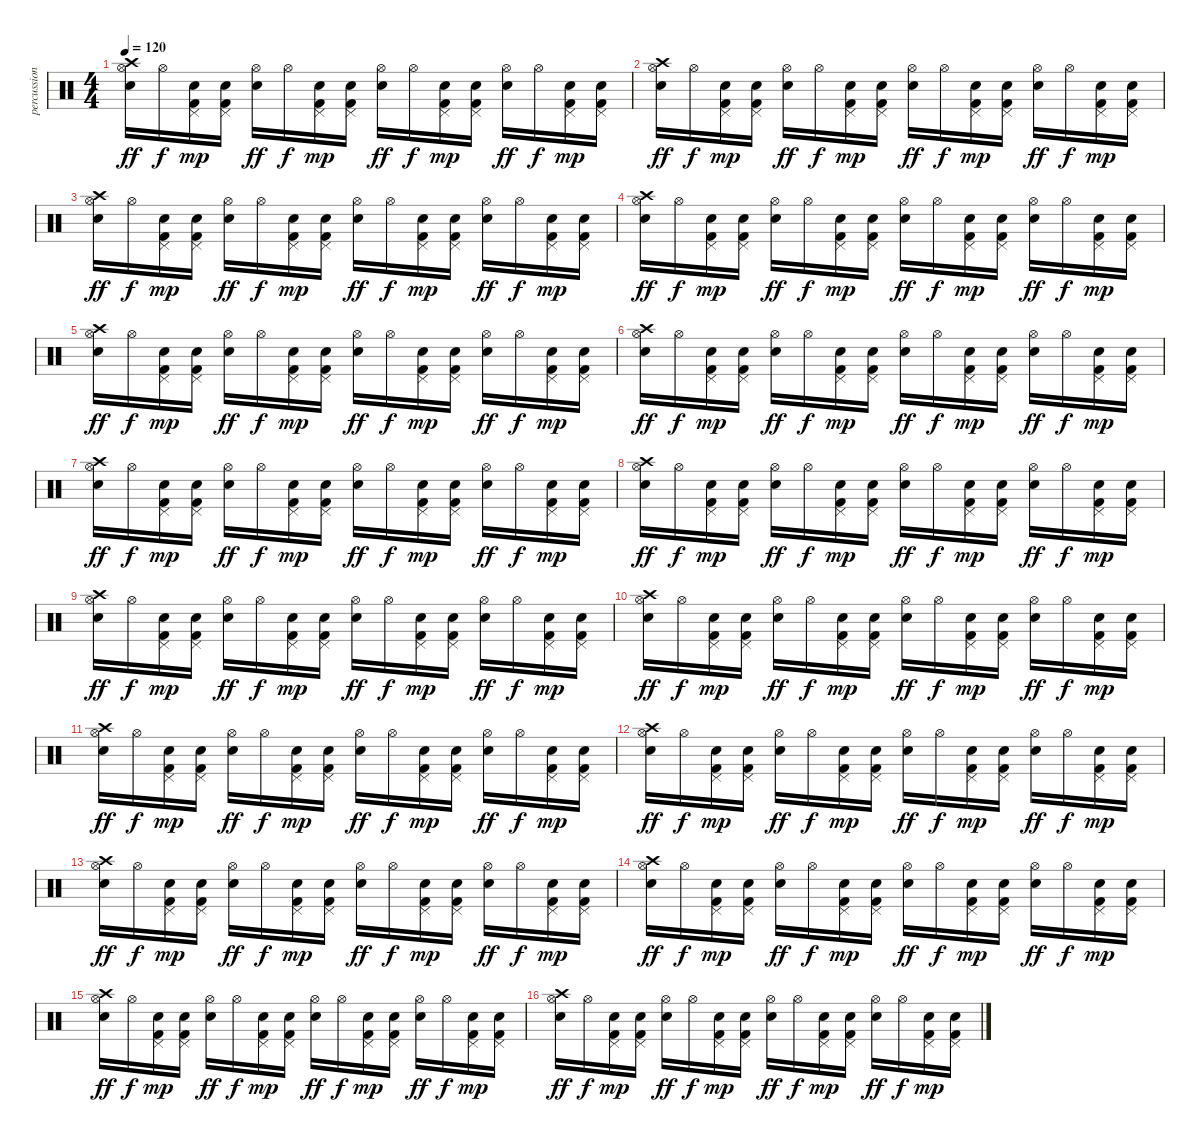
\track ("percussion" "percussion") {instrument percussion}
\staff {score}
\articulation defaults
\ts (4 4)
\tempo 120
\clef neutral
\ks c
("Hi-Hat (open)" "Electric Snare (hit)" "Crash high (hit)").16{dy ff} "Hi-Hat (open)".16{dy f} ("Electric Snare (hit)" "Kick (hit) 2" "Pedal Hi-Hat (hit)").16{dy mp} ("Electric Snare (hit)" "Kick (hit) 2" "Pedal Hi-Hat (hit)").16 ("Hi-Hat (open)" "Electric Snare (hit)").16{dy ff} "Hi-Hat (open)".16{dy f} ("Electric Snare (hit)" "Kick (hit) 2" "Pedal Hi-Hat (hit)").16{dy mp} ("Electric Snare (hit)" "Kick (hit) 2" "Pedal Hi-Hat (hit)").16 ("Hi-Hat (open)" "Electric Snare (hit)").16{dy ff} "Hi-Hat (open)".16{dy f} ("Electric Snare (hit)" "Kick (hit) 2" "Pedal Hi-Hat (hit)").16{dy mp} ("Electric Snare (hit)" "Kick (hit) 2" "Pedal Hi-Hat (hit)").16 ("Hi-Hat (open)" "Electric Snare (hit)").16{dy ff} "Hi-Hat (open)".16{dy f} ("Electric Snare (hit)" "Kick (hit) 2" "Pedal Hi-Hat (hit)").16{dy mp} ("Electric Snare (hit)" "Kick (hit) 2" "Pedal Hi-Hat (hit)").16 |
("Hi-Hat (open)" "Electric Snare (hit)" "Crash high (hit)").16{dy ff} "Hi-Hat (open)".16{dy f} ("Electric Snare (hit)" "Kick (hit) 2" "Pedal Hi-Hat (hit)").16{dy mp} ("Electric Snare (hit)" "Kick (hit) 2" "Pedal Hi-Hat (hit)").16 ("Hi-Hat (open)" "Electric Snare (hit)").16{dy ff} "Hi-Hat (open)".16{dy f} ("Electric Snare (hit)" "Kick (hit) 2" "Pedal Hi-Hat (hit)").16{dy mp} ("Electric Snare (hit)" "Kick (hit) 2" "Pedal Hi-Hat (hit)").16 ("Hi-Hat (open)" "Electric Snare (hit)").16{dy ff} "Hi-Hat (open)".16{dy f} ("Electric Snare (hit)" "Kick (hit) 2" "Pedal Hi-Hat (hit)").16{dy mp} ("Electric Snare (hit)" "Kick (hit) 2" "Pedal Hi-Hat (hit)").16 ("Hi-Hat (open)" "Electric Snare (hit)").16{dy ff} "Hi-Hat (open)".16{dy f} ("Electric Snare (hit)" "Kick (hit) 2" "Pedal Hi-Hat (hit)").16{dy mp} ("Electric Snare (hit)" "Kick (hit) 2" "Pedal Hi-Hat (hit)").16 |
("Hi-Hat (open)" "Electric Snare (hit)" "Crash high (hit)").16{dy ff} "Hi-Hat (open)".16{dy f} ("Electric Snare (hit)" "Kick (hit) 2" "Pedal Hi-Hat (hit)").16{dy mp} ("Electric Snare (hit)" "Kick (hit) 2" "Pedal Hi-Hat (hit)").16 ("Hi-Hat (open)" "Electric Snare (hit)").16{dy ff} "Hi-Hat (open)".16{dy f} ("Electric Snare (hit)" "Kick (hit) 2" "Pedal Hi-Hat (hit)").16{dy mp} ("Electric Snare (hit)" "Kick (hit) 2" "Pedal Hi-Hat (hit)").16 ("Hi-Hat (open)" "Electric Snare (hit)").16{dy ff} "Hi-Hat (open)".16{dy f} ("Electric Snare (hit)" "Kick (hit) 2" "Pedal Hi-Hat (hit)").16{dy mp} ("Electric Snare (hit)" "Kick (hit) 2" "Pedal Hi-Hat (hit)").16 ("Hi-Hat (open)" "Electric Snare (hit)").16{dy ff} "Hi-Hat (open)".16{dy f} ("Electric Snare (hit)" "Kick (hit) 2" "Pedal Hi-Hat (hit)").16{dy mp} ("Electric Snare (hit)" "Kick (hit) 2" "Pedal Hi-Hat (hit)").16 |
("Hi-Hat (open)" "Electric Snare (hit)" "Crash high (hit)").16{dy ff} "Hi-Hat (open)".16{dy f} ("Electric Snare (hit)" "Kick (hit) 2" "Pedal Hi-Hat (hit)").16{dy mp} ("Electric Snare (hit)" "Kick (hit) 2" "Pedal Hi-Hat (hit)").16 ("Hi-Hat (open)" "Electric Snare (hit)").16{dy ff} "Hi-Hat (open)".16{dy f} ("Electric Snare (hit)" "Kick (hit) 2" "Pedal Hi-Hat (hit)").16{dy mp} ("Electric Snare (hit)" "Kick (hit) 2" "Pedal Hi-Hat (hit)").16 ("Hi-Hat (open)" "Electric Snare (hit)").16{dy ff} "Hi-Hat (open)".16{dy f} ("Electric Snare (hit)" "Kick (hit) 2" "Pedal Hi-Hat (hit)").16{dy mp} ("Electric Snare (hit)" "Kick (hit) 2" "Pedal Hi-Hat (hit)").16 ("Hi-Hat (open)" "Electric Snare (hit)").16{dy ff} "Hi-Hat (open)".16{dy f} ("Electric Snare (hit)" "Kick (hit) 2" "Pedal Hi-Hat (hit)").16{dy mp} ("Electric Snare (hit)" "Kick (hit) 2" "Pedal Hi-Hat (hit)").16 |
("Hi-Hat (open)" "Electric Snare (hit)" "Crash high (hit)").16{dy ff} "Hi-Hat (open)".16{dy f} ("Electric Snare (hit)" "Kick (hit) 2" "Pedal Hi-Hat (hit)").16{dy mp} ("Electric Snare (hit)" "Kick (hit) 2" "Pedal Hi-Hat (hit)").16 ("Hi-Hat (open)" "Electric Snare (hit)").16{dy ff} "Hi-Hat (open)".16{dy f} ("Electric Snare (hit)" "Kick (hit) 2" "Pedal Hi-Hat (hit)").16{dy mp} ("Electric Snare (hit)" "Kick (hit) 2" "Pedal Hi-Hat (hit)").16 ("Hi-Hat (open)" "Electric Snare (hit)").16{dy ff} "Hi-Hat (open)".16{dy f} ("Electric Snare (hit)" "Kick (hit) 2" "Pedal Hi-Hat (hit)").16{dy mp} ("Electric Snare (hit)" "Kick (hit) 2" "Pedal Hi-Hat (hit)").16 ("Hi-Hat (open)" "Electric Snare (hit)").16{dy ff} "Hi-Hat (open)".16{dy f} ("Electric Snare (hit)" "Kick (hit) 2" "Pedal Hi-Hat (hit)").16{dy mp} ("Electric Snare (hit)" "Kick (hit) 2" "Pedal Hi-Hat (hit)").16 |
("Hi-Hat (open)" "Electric Snare (hit)" "Crash high (hit)").16{dy ff} "Hi-Hat (open)".16{dy f} ("Electric Snare (hit)" "Kick (hit) 2" "Pedal Hi-Hat (hit)").16{dy mp} ("Electric Snare (hit)" "Kick (hit) 2" "Pedal Hi-Hat (hit)").16 ("Hi-Hat (open)" "Electric Snare (hit)").16{dy ff} "Hi-Hat (open)".16{dy f} ("Electric Snare (hit)" "Kick (hit) 2" "Pedal Hi-Hat (hit)").16{dy mp} ("Electric Snare (hit)" "Kick (hit) 2" "Pedal Hi-Hat (hit)").16 ("Hi-Hat (open)" "Electric Snare (hit)").16{dy ff} "Hi-Hat (open)".16{dy f} ("Electric Snare (hit)" "Kick (hit) 2" "Pedal Hi-Hat (hit)").16{dy mp} ("Electric Snare (hit)" "Kick (hit) 2" "Pedal Hi-Hat (hit)").16 ("Hi-Hat (open)" "Electric Snare (hit)").16{dy ff} "Hi-Hat (open)".16{dy f} ("Electric Snare (hit)" "Kick (hit) 2" "Pedal Hi-Hat (hit)").16{dy mp} ("Electric Snare (hit)" "Kick (hit) 2" "Pedal Hi-Hat (hit)").16 |
("Hi-Hat (open)" "Electric Snare (hit)" "Crash high (hit)").16{dy ff} "Hi-Hat (open)".16{dy f} ("Electric Snare (hit)" "Kick (hit) 2" "Pedal Hi-Hat (hit)").16{dy mp} ("Electric Snare (hit)" "Kick (hit) 2" "Pedal Hi-Hat (hit)").16 ("Hi-Hat (open)" "Electric Snare (hit)").16{dy ff} "Hi-Hat (open)".16{dy f} ("Electric Snare (hit)" "Kick (hit) 2" "Pedal Hi-Hat (hit)").16{dy mp} ("Electric Snare (hit)" "Kick (hit) 2" "Pedal Hi-Hat (hit)").16 ("Hi-Hat (open)" "Electric Snare (hit)").16{dy ff} "Hi-Hat (open)".16{dy f} ("Electric Snare (hit)" "Kick (hit) 2" "Pedal Hi-Hat (hit)").16{dy mp} ("Electric Snare (hit)" "Kick (hit) 2" "Pedal Hi-Hat (hit)").16 ("Hi-Hat (open)" "Electric Snare (hit)").16{dy ff} "Hi-Hat (open)".16{dy f} ("Electric Snare (hit)" "Kick (hit) 2" "Pedal Hi-Hat (hit)").16{dy mp} ("Electric Snare (hit)" "Kick (hit) 2" "Pedal Hi-Hat (hit)").16 |
("Hi-Hat (open)" "Electric Snare (hit)" "Crash high (hit)").16{dy ff} "Hi-Hat (open)".16{dy f} ("Electric Snare (hit)" "Kick (hit) 2" "Pedal Hi-Hat (hit)").16{dy mp} ("Electric Snare (hit)" "Kick (hit) 2" "Pedal Hi-Hat (hit)").16 ("Hi-Hat (open)" "Electric Snare (hit)").16{dy ff} "Hi-Hat (open)".16{dy f} ("Electric Snare (hit)" "Kick (hit) 2" "Pedal Hi-Hat (hit)").16{dy mp} ("Electric Snare (hit)" "Kick (hit) 2" "Pedal Hi-Hat (hit)").16 ("Hi-Hat (open)" "Electric Snare (hit)").16{dy ff} "Hi-Hat (open)".16{dy f} ("Electric Snare (hit)" "Kick (hit) 2" "Pedal Hi-Hat (hit)").16{dy mp} ("Electric Snare (hit)" "Kick (hit) 2" "Pedal Hi-Hat (hit)").16 ("Hi-Hat (open)" "Electric Snare (hit)").16{dy ff} "Hi-Hat (open)".16{dy f} ("Electric Snare (hit)" "Kick (hit) 2" "Pedal Hi-Hat (hit)").16{dy mp} ("Electric Snare (hit)" "Kick (hit) 2" "Pedal Hi-Hat (hit)").16 |
("Hi-Hat (open)" "Electric Snare (hit)" "Crash high (hit)").16{dy ff} "Hi-Hat (open)".16{dy f} ("Electric Snare (hit)" "Kick (hit) 2" "Pedal Hi-Hat (hit)").16{dy mp} ("Electric Snare (hit)" "Kick (hit) 2" "Pedal Hi-Hat (hit)").16 ("Hi-Hat (open)" "Electric Snare (hit)").16{dy ff} "Hi-Hat (open)".16{dy f} ("Electric Snare (hit)" "Kick (hit) 2" "Pedal Hi-Hat (hit)").16{dy mp} ("Electric Snare (hit)" "Kick (hit) 2" "Pedal Hi-Hat (hit)").16 ("Hi-Hat (open)" "Electric Snare (hit)").16{dy ff} "Hi-Hat (open)".16{dy f} ("Electric Snare (hit)" "Kick (hit) 2" "Pedal Hi-Hat (hit)").16{dy mp} ("Electric Snare (hit)" "Kick (hit) 2" "Pedal Hi-Hat (hit)").16 ("Hi-Hat (open)" "Electric Snare (hit)").16{dy ff} "Hi-Hat (open)".16{dy f} ("Electric Snare (hit)" "Kick (hit) 2" "Pedal Hi-Hat (hit)").16{dy mp} ("Electric Snare (hit)" "Kick (hit) 2" "Pedal Hi-Hat (hit)").16 |
("Hi-Hat (open)" "Electric Snare (hit)" "Crash high (hit)").16{dy ff} "Hi-Hat (open)".16{dy f} ("Electric Snare (hit)" "Kick (hit) 2" "Pedal Hi-Hat (hit)").16{dy mp} ("Electric Snare (hit)" "Kick (hit) 2" "Pedal Hi-Hat (hit)").16 ("Hi-Hat (open)" "Electric Snare (hit)").16{dy ff} "Hi-Hat (open)".16{dy f} ("Electric Snare (hit)" "Kick (hit) 2" "Pedal Hi-Hat (hit)").16{dy mp} ("Electric Snare (hit)" "Kick (hit) 2" "Pedal Hi-Hat (hit)").16 ("Hi-Hat (open)" "Electric Snare (hit)").16{dy ff} "Hi-Hat (open)".16{dy f} ("Electric Snare (hit)" "Kick (hit) 2" "Pedal Hi-Hat (hit)").16{dy mp} ("Electric Snare (hit)" "Kick (hit) 2" "Pedal Hi-Hat (hit)").16 ("Hi-Hat (open)" "Electric Snare (hit)").16{dy ff} "Hi-Hat (open)".16{dy f} ("Electric Snare (hit)" "Kick (hit) 2" "Pedal Hi-Hat (hit)").16{dy mp} ("Electric Snare (hit)" "Kick (hit) 2" "Pedal Hi-Hat (hit)").16 |
("Hi-Hat (open)" "Electric Snare (hit)" "Crash high (hit)").16{dy ff} "Hi-Hat (open)".16{dy f} ("Electric Snare (hit)" "Kick (hit) 2" "Pedal Hi-Hat (hit)").16{dy mp} ("Electric Snare (hit)" "Kick (hit) 2" "Pedal Hi-Hat (hit)").16 ("Hi-Hat (open)" "Electric Snare (hit)").16{dy ff} "Hi-Hat (open)".16{dy f} ("Electric Snare (hit)" "Kick (hit) 2" "Pedal Hi-Hat (hit)").16{dy mp} ("Electric Snare (hit)" "Kick (hit) 2" "Pedal Hi-Hat (hit)").16 ("Hi-Hat (open)" "Electric Snare (hit)").16{dy ff} "Hi-Hat (open)".16{dy f} ("Electric Snare (hit)" "Kick (hit) 2" "Pedal Hi-Hat (hit)").16{dy mp} ("Electric Snare (hit)" "Kick (hit) 2" "Pedal Hi-Hat (hit)").16 ("Hi-Hat (open)" "Electric Snare (hit)").16{dy ff} "Hi-Hat (open)".16{dy f} ("Electric Snare (hit)" "Kick (hit) 2" "Pedal Hi-Hat (hit)").16{dy mp} ("Electric Snare (hit)" "Kick (hit) 2" "Pedal Hi-Hat (hit)").16 |
("Hi-Hat (open)" "Electric Snare (hit)" "Crash high (hit)").16{dy ff} "Hi-Hat (open)".16{dy f} ("Electric Snare (hit)" "Kick (hit) 2" "Pedal Hi-Hat (hit)").16{dy mp} ("Electric Snare (hit)" "Kick (hit) 2" "Pedal Hi-Hat (hit)").16 ("Hi-Hat (open)" "Electric Snare (hit)").16{dy ff} "Hi-Hat (open)".16{dy f} ("Electric Snare (hit)" "Kick (hit) 2" "Pedal Hi-Hat (hit)").16{dy mp} ("Electric Snare (hit)" "Kick (hit) 2" "Pedal Hi-Hat (hit)").16 ("Hi-Hat (open)" "Electric Snare (hit)").16{dy ff} "Hi-Hat (open)".16{dy f} ("Electric Snare (hit)" "Kick (hit) 2" "Pedal Hi-Hat (hit)").16{dy mp} ("Electric Snare (hit)" "Kick (hit) 2" "Pedal Hi-Hat (hit)").16 ("Hi-Hat (open)" "Electric Snare (hit)").16{dy ff} "Hi-Hat (open)".16{dy f} ("Electric Snare (hit)" "Kick (hit) 2" "Pedal Hi-Hat (hit)").16{dy mp} ("Electric Snare (hit)" "Kick (hit) 2" "Pedal Hi-Hat (hit)").16 |
("Hi-Hat (open)" "Electric Snare (hit)" "Crash high (hit)").16{dy ff} "Hi-Hat (open)".16{dy f} ("Electric Snare (hit)" "Kick (hit) 2" "Pedal Hi-Hat (hit)").16{dy mp} ("Electric Snare (hit)" "Kick (hit) 2" "Pedal Hi-Hat (hit)").16 ("Hi-Hat (open)" "Electric Snare (hit)").16{dy ff} "Hi-Hat (open)".16{dy f} ("Electric Snare (hit)" "Kick (hit) 2" "Pedal Hi-Hat (hit)").16{dy mp} ("Electric Snare (hit)" "Kick (hit) 2" "Pedal Hi-Hat (hit)").16 ("Hi-Hat (open)" "Electric Snare (hit)").16{dy ff} "Hi-Hat (open)".16{dy f} ("Electric Snare (hit)" "Kick (hit) 2" "Pedal Hi-Hat (hit)").16{dy mp} ("Electric Snare (hit)" "Kick (hit) 2" "Pedal Hi-Hat (hit)").16 ("Hi-Hat (open)" "Electric Snare (hit)").16{dy ff} "Hi-Hat (open)".16{dy f} ("Electric Snare (hit)" "Kick (hit) 2" "Pedal Hi-Hat (hit)").16{dy mp} ("Electric Snare (hit)" "Kick (hit) 2" "Pedal Hi-Hat (hit)").16 |
("Hi-Hat (open)" "Electric Snare (hit)" "Crash high (hit)").16{dy ff} "Hi-Hat (open)".16{dy f} ("Electric Snare (hit)" "Kick (hit) 2" "Pedal Hi-Hat (hit)").16{dy mp} ("Electric Snare (hit)" "Kick (hit) 2" "Pedal Hi-Hat (hit)").16 ("Hi-Hat (open)" "Electric Snare (hit)").16{dy ff} "Hi-Hat (open)".16{dy f} ("Electric Snare (hit)" "Kick (hit) 2" "Pedal Hi-Hat (hit)").16{dy mp} ("Electric Snare (hit)" "Kick (hit) 2" "Pedal Hi-Hat (hit)").16 ("Hi-Hat (open)" "Electric Snare (hit)").16{dy ff} "Hi-Hat (open)".16{dy f} ("Electric Snare (hit)" "Kick (hit) 2" "Pedal Hi-Hat (hit)").16{dy mp} ("Electric Snare (hit)" "Kick (hit) 2" "Pedal Hi-Hat (hit)").16 ("Hi-Hat (open)" "Electric Snare (hit)").16{dy ff} "Hi-Hat (open)".16{dy f} ("Electric Snare (hit)" "Kick (hit) 2" "Pedal Hi-Hat (hit)").16{dy mp} ("Electric Snare (hit)" "Kick (hit) 2" "Pedal Hi-Hat (hit)").16 |
("Hi-Hat (open)" "Electric Snare (hit)" "Crash high (hit)").16{dy ff} "Hi-Hat (open)".16{dy f} ("Electric Snare (hit)" "Kick (hit) 2" "Pedal Hi-Hat (hit)").16{dy mp} ("Electric Snare (hit)" "Kick (hit) 2" "Pedal Hi-Hat (hit)").16 ("Hi-Hat (open)" "Electric Snare (hit)").16{dy ff} "Hi-Hat (open)".16{dy f} ("Electric Snare (hit)" "Kick (hit) 2" "Pedal Hi-Hat (hit)").16{dy mp} ("Electric Snare (hit)" "Kick (hit) 2" "Pedal Hi-Hat (hit)").16 ("Hi-Hat (open)" "Electric Snare (hit)").16{dy ff} "Hi-Hat (open)".16{dy f} ("Electric Snare (hit)" "Kick (hit) 2" "Pedal Hi-Hat (hit)").16{dy mp} ("Electric Snare (hit)" "Kick (hit) 2" "Pedal Hi-Hat (hit)").16 ("Hi-Hat (open)" "Electric Snare (hit)").16{dy ff} "Hi-Hat (open)".16{dy f} ("Electric Snare (hit)" "Kick (hit) 2" "Pedal Hi-Hat (hit)").16{dy mp} ("Electric Snare (hit)" "Kick (hit) 2" "Pedal Hi-Hat (hit)").16 |
("Hi-Hat (open)" "Electric Snare (hit)" "Crash high (hit)").16{dy ff} "Hi-Hat (open)".16{dy f} ("Electric Snare (hit)" "Kick (hit) 2" "Pedal Hi-Hat (hit)").16{dy mp} ("Electric Snare (hit)" "Kick (hit) 2" "Pedal Hi-Hat (hit)").16 ("Hi-Hat (open)" "Electric Snare (hit)").16{dy ff} "Hi-Hat (open)".16{dy f} ("Electric Snare (hit)" "Kick (hit) 2" "Pedal Hi-Hat (hit)").16{dy mp} ("Electric Snare (hit)" "Kick (hit) 2" "Pedal Hi-Hat (hit)").16 ("Hi-Hat (open)" "Electric Snare (hit)").16{dy ff} "Hi-Hat (open)".16{dy f} ("Electric Snare (hit)" "Kick (hit) 2" "Pedal Hi-Hat (hit)").16{dy mp} ("Electric Snare (hit)" "Kick (hit) 2" "Pedal Hi-Hat (hit)").16 ("Hi-Hat (open)" "Electric Snare (hit)").16{dy ff} "Hi-Hat (open)".16{dy f} ("Electric Snare (hit)" "Kick (hit) 2" "Pedal Hi-Hat (hit)").16{dy mp} ("Electric Snare (hit)" "Kick (hit) 2" "Pedal Hi-Hat (hit)").16
